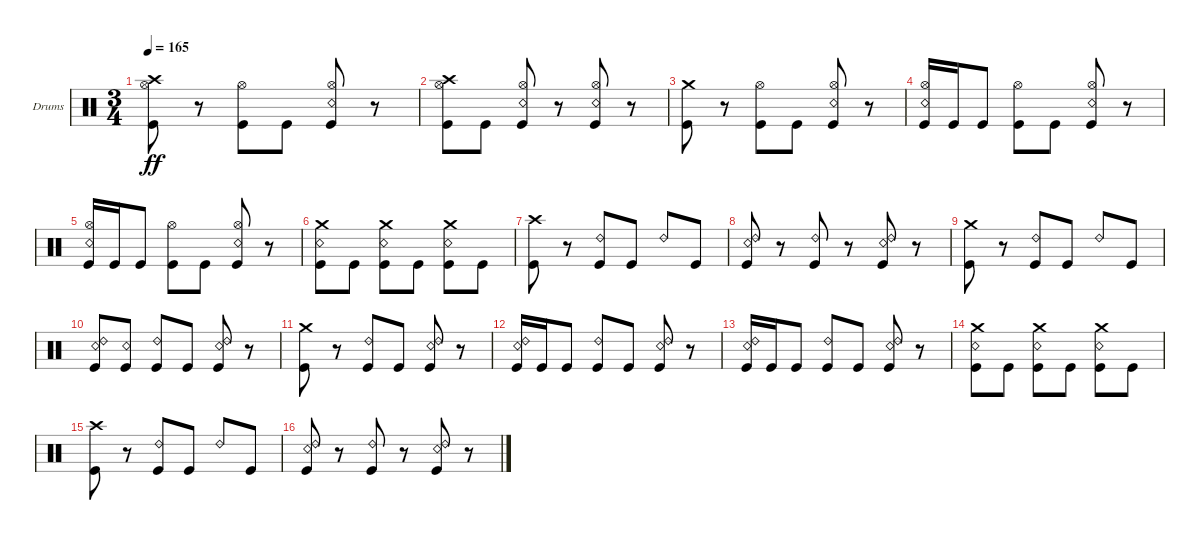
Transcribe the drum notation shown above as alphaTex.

\bracketExtendMode groupsimilarinstruments
\firstSystemTrackNameOrientation horizontal
\otherSystemsTrackNameOrientation horizontal
\track ("Kaleb - Drums" "Drums") {instrument percussion}
\staff {score}
\articulation defaults
\ts (3 4)
\tempo 165
\clef neutral
\ks c
("Kick (hit)" "Hi-Hat (open)" "Crash high (hit)").8{dy ff} r.8 ("Kick (hit)" "Hi-Hat (open)").8 "Kick (hit)".8 ("Kick (hit)" "Hi-Hat (open)" "Snare (rim shot)").8 r.8 |
("Kick (hit)" "Hi-Hat (open)" "Crash high (hit)").8 "Kick (hit)".8 ("Kick (hit)" "Hi-Hat (open)" "Snare (rim shot)").8 r.8 ("Kick (hit)" "Hi-Hat (open)" "Snare (rim shot)").8 r.8 |
("Kick (hit)" "Crash medium (hit)").8 r.8 ("Kick (hit)" "Hi-Hat (open)").8 "Kick (hit)".8 ("Kick (hit)" "Hi-Hat (open)" "Snare (rim shot)").8 r.8 |
("Kick (hit)" "Hi-Hat (open)" "Snare (rim shot)").16 "Kick (hit)".16 "Kick (hit)".8 ("Kick (hit)" "Hi-Hat (open)").8 "Kick (hit)".8 ("Kick (hit)" "Hi-Hat (open)" "Snare (rim shot)").8 r.8 |
("Kick (hit)" "Hi-Hat (open)" "Snare (rim shot)").16 "Kick (hit)".16 "Kick (hit)".8 ("Kick (hit)" "Hi-Hat (open)").8 "Kick (hit)".8 ("Kick (hit)" "Hi-Hat (open)" "Snare (rim shot)").8 r.8 |
("Kick (hit)" "Crash medium (hit)" "Snare (rim shot)").8 "Kick (hit)".8 ("Kick (hit)" "Crash medium (hit)" "Snare (rim shot)").8 "Kick (hit)".8 ("Kick (hit)" "Crash medium (hit)" "Snare (rim shot)").8 "Kick (hit)".8 |
("Kick (hit)" "Crash high (hit)").8 r.8 ("Kick (hit)" "Ride (bell) 2").8 "Kick (hit)".8 "Ride (bell) 2".8 "Kick (hit)".8 |
("Kick (hit)" "Ride (bell) 2" "Snare (rim shot)").8 r.8 ("Kick (hit)" "Ride (bell) 2").8 r.8 ("Kick (hit)" "Ride (bell) 2" "Snare (rim shot)").8 r.8 |
("Kick (hit)" "Crash medium (hit)").8 r.8 ("Kick (hit)" "Ride (bell) 2").8 "Kick (hit)".8 "Ride (bell) 2".8 "Kick (hit)".8 |
("Kick (hit)" "Ride (bell) 2" "Snare (rim shot)").8 ("Kick (hit)" "Snare (rim shot)").8 ("Kick (hit)" "Ride (bell) 2").8 "Kick (hit)".8 ("Kick (hit)" "Ride (bell) 2" "Snare (rim shot)").8 r.8 |
("Kick (hit)" "Crash medium (hit)").8 r.8 ("Kick (hit)" "Ride (bell) 2").8 "Kick (hit)".8 ("Kick (hit)" "Snare (rim shot)" "Ride (bell) 2").8 r.8 |
("Kick (hit)" "Snare (rim shot)" "Ride (bell) 2").16 "Kick (hit)".16 "Kick (hit)".8 ("Kick (hit)" "Ride (bell) 2").8 "Kick (hit)".8 ("Kick (hit)" "Snare (rim shot)" "Ride (bell) 2").8 r.8 |
("Kick (hit)" "Snare (rim shot)" "Ride (bell) 2").16 "Kick (hit)".16 "Kick (hit)".8 ("Kick (hit)" "Ride (bell) 2").8 "Kick (hit)".8 ("Kick (hit)" "Snare (rim shot)" "Ride (bell) 2").8 r.8 |
("Kick (hit)" "Crash medium (hit)" "Snare (rim shot)").8 "Kick (hit)".8 ("Kick (hit)" "Crash medium (hit)" "Snare (rim shot)").8 "Kick (hit)".8 ("Kick (hit)" "Crash medium (hit)" "Snare (rim shot)").8 "Kick (hit)".8 |
("Kick (hit)" "Crash high (hit)").8 r.8 ("Kick (hit)" "Ride (bell) 2").8 "Kick (hit)".8 "Ride (bell) 2".8 "Kick (hit)".8 |
("Kick (hit)" "Ride (bell) 2" "Snare (rim shot)").8 r.8 ("Kick (hit)" "Ride (bell) 2").8 r.8 ("Kick (hit)" "Ride (bell) 2" "Snare (rim shot)").8 r.8
